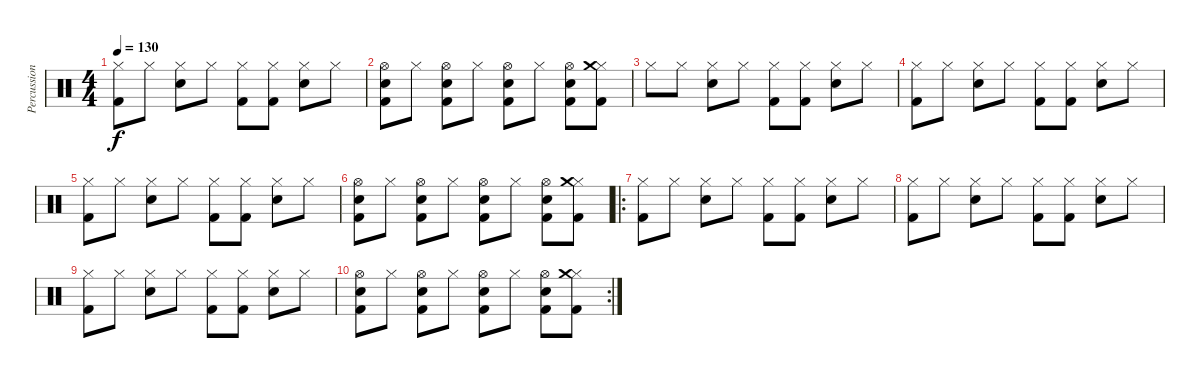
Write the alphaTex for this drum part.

\track ("Percussion" "Percussion") {instrument percussion}
\staff {score}
\articulation defaults
\ts (4 4)
\tempo 130
\clef neutral
\ks c
("Hi-Hat (closed)" "Kick (hit) 2").8{dy f} "Hi-Hat (closed)".8 ("Hi-Hat (closed)" "Metronome (bell)").8 "Hi-Hat (closed)".8 ("Hi-Hat (closed)" "Kick (hit) 2").8 ("Hi-Hat (closed)" "Kick (hit) 2").8 ("Hi-Hat (closed)" "Metronome (bell)").8 "Hi-Hat (closed)".8 |
("Hi-Hat (open)" "Metronome (bell)" "Kick (hit) 2").8 "Hi-Hat (closed)".8 ("Hi-Hat (open)" "Metronome (bell)" "Kick (hit) 2").8 "Hi-Hat (closed)".8 ("Hi-Hat (open)" "Metronome (bell)" "Kick (hit) 2").8 "Hi-Hat (closed)".8 ("Hi-Hat (open)" "Metronome (bell)" "Kick (hit) 2").8 ("Hi-Hat (closed)" "Crash medium (hit)" "Kick (hit) 2").8 |
"Hi-Hat (closed)".8 "Hi-Hat (closed)".8 ("Hi-Hat (closed)" "Metronome (bell)").8 "Hi-Hat (closed)".8 ("Hi-Hat (closed)" "Kick (hit) 2").8 ("Hi-Hat (closed)" "Kick (hit) 2").8 ("Hi-Hat (closed)" "Metronome (bell)").8 "Hi-Hat (closed)".8 |
("Hi-Hat (closed)" "Kick (hit) 2").8 "Hi-Hat (closed)".8 ("Hi-Hat (closed)" "Metronome (bell)").8 "Hi-Hat (closed)".8 ("Hi-Hat (closed)" "Kick (hit) 2").8 ("Hi-Hat (closed)" "Kick (hit) 2").8 ("Hi-Hat (closed)" "Metronome (bell)").8 "Hi-Hat (closed)".8 |
("Hi-Hat (closed)" "Kick (hit) 2").8 "Hi-Hat (closed)".8 ("Hi-Hat (closed)" "Metronome (bell)").8 "Hi-Hat (closed)".8 ("Hi-Hat (closed)" "Kick (hit) 2").8 ("Hi-Hat (closed)" "Kick (hit) 2").8 ("Hi-Hat (closed)" "Metronome (bell)").8 "Hi-Hat (closed)".8 |
("Hi-Hat (open)" "Metronome (bell)" "Kick (hit) 2").8 "Hi-Hat (closed)".8 ("Hi-Hat (open)" "Metronome (bell)" "Kick (hit) 2").8 "Hi-Hat (closed)".8 ("Hi-Hat (open)" "Metronome (bell)" "Kick (hit) 2").8 "Hi-Hat (closed)".8 ("Hi-Hat (open)" "Metronome (bell)" "Kick (hit) 2").8 ("Hi-Hat (closed)" "Crash medium (hit)" "Kick (hit) 2").8 |
\ro
("Hi-Hat (closed)" "Kick (hit) 2").8 "Hi-Hat (closed)".8 ("Hi-Hat (closed)" "Metronome (bell)").8 "Hi-Hat (closed)".8 ("Hi-Hat (closed)" "Kick (hit) 2").8 ("Hi-Hat (closed)" "Kick (hit) 2").8 ("Hi-Hat (closed)" "Metronome (bell)").8 "Hi-Hat (closed)".8 |
("Hi-Hat (closed)" "Kick (hit) 2").8 "Hi-Hat (closed)".8 ("Hi-Hat (closed)" "Metronome (bell)").8 "Hi-Hat (closed)".8 ("Hi-Hat (closed)" "Kick (hit) 2").8 ("Hi-Hat (closed)" "Kick (hit) 2").8 ("Hi-Hat (closed)" "Metronome (bell)").8 "Hi-Hat (closed)".8 |
("Hi-Hat (closed)" "Kick (hit) 2").8 "Hi-Hat (closed)".8 ("Hi-Hat (closed)" "Metronome (bell)").8 "Hi-Hat (closed)".8 ("Hi-Hat (closed)" "Kick (hit) 2").8 ("Hi-Hat (closed)" "Kick (hit) 2").8 ("Hi-Hat (closed)" "Metronome (bell)").8 "Hi-Hat (closed)".8 |
\rc 2
("Hi-Hat (open)" "Metronome (bell)" "Kick (hit) 2").8 "Hi-Hat (closed)".8 ("Hi-Hat (open)" "Metronome (bell)" "Kick (hit) 2").8 "Hi-Hat (closed)".8 ("Hi-Hat (open)" "Metronome (bell)" "Kick (hit) 2").8 "Hi-Hat (closed)".8 ("Hi-Hat (open)" "Metronome (bell)" "Kick (hit) 2").8 ("Hi-Hat (closed)" "Crash medium (hit)" "Kick (hit) 2").8
